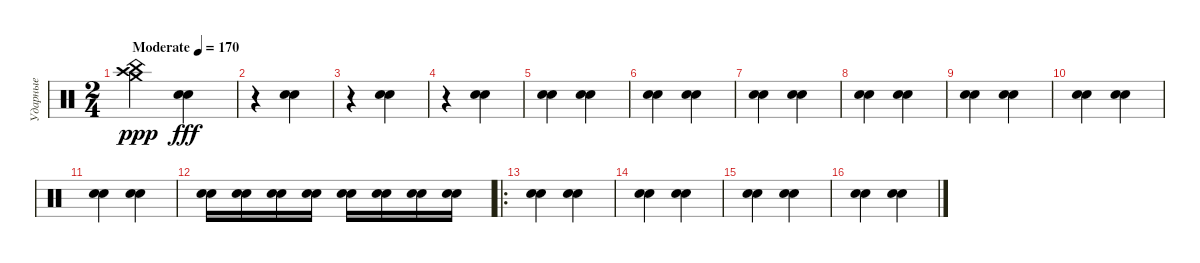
\track ("Ударные" "Ударные") {instrument percussion}
\staff {score}
\articulation defaults
\ts (2 4)
\tempo (170 "Moderate")
\clef neutral
\ks c
("Crash medium (hit)" "Crash high (hit)" "China (hit)").4{dy ppp} ("Snare (hit) 2" "Electric Snare (hit)").4{dy fff} |
r.4 ("Snare (hit) 2" "Electric Snare (hit)").4 |
r.4 ("Snare (hit) 2" "Electric Snare (hit)").4 |
r.4 ("Snare (hit) 2" "Electric Snare (hit)").4 |
("Snare (hit) 2" "Electric Snare (hit)").4 ("Snare (hit) 2" "Electric Snare (hit)").4 |
("Snare (hit) 2" "Electric Snare (hit)").4 ("Snare (hit) 2" "Electric Snare (hit)").4 |
("Snare (hit) 2" "Electric Snare (hit)").4 ("Snare (hit) 2" "Electric Snare (hit)").4 |
("Snare (hit) 2" "Electric Snare (hit)").4 ("Snare (hit) 2" "Electric Snare (hit)").4 |
("Snare (hit) 2" "Electric Snare (hit)").4 ("Snare (hit) 2" "Electric Snare (hit)").4 |
("Snare (hit) 2" "Electric Snare (hit)").4 ("Snare (hit) 2" "Electric Snare (hit)").4 |
("Snare (hit) 2" "Electric Snare (hit)").4 ("Snare (hit) 2" "Electric Snare (hit)").4 |
("Snare (hit) 2" "Electric Snare (hit)").16 ("Snare (hit) 2" "Electric Snare (hit)").16 ("Snare (hit) 2" "Electric Snare (hit)").16 ("Snare (hit) 2" "Electric Snare (hit)").16 ("Snare (hit) 2" "Electric Snare (hit)").16 ("Snare (hit) 2" "Electric Snare (hit)").16 ("Snare (hit) 2" "Electric Snare (hit)").16 ("Snare (hit) 2" "Electric Snare (hit)").16 |
\ro
("Snare (hit) 2" "Electric Snare (hit)").4 ("Snare (hit) 2" "Electric Snare (hit)").4 |
("Snare (hit) 2" "Electric Snare (hit)").4 ("Snare (hit) 2" "Electric Snare (hit)").4 |
("Snare (hit) 2" "Electric Snare (hit)").4 ("Snare (hit) 2" "Electric Snare (hit)").4 |
("Snare (hit) 2" "Electric Snare (hit)").4 ("Snare (hit) 2" "Electric Snare (hit)").4
